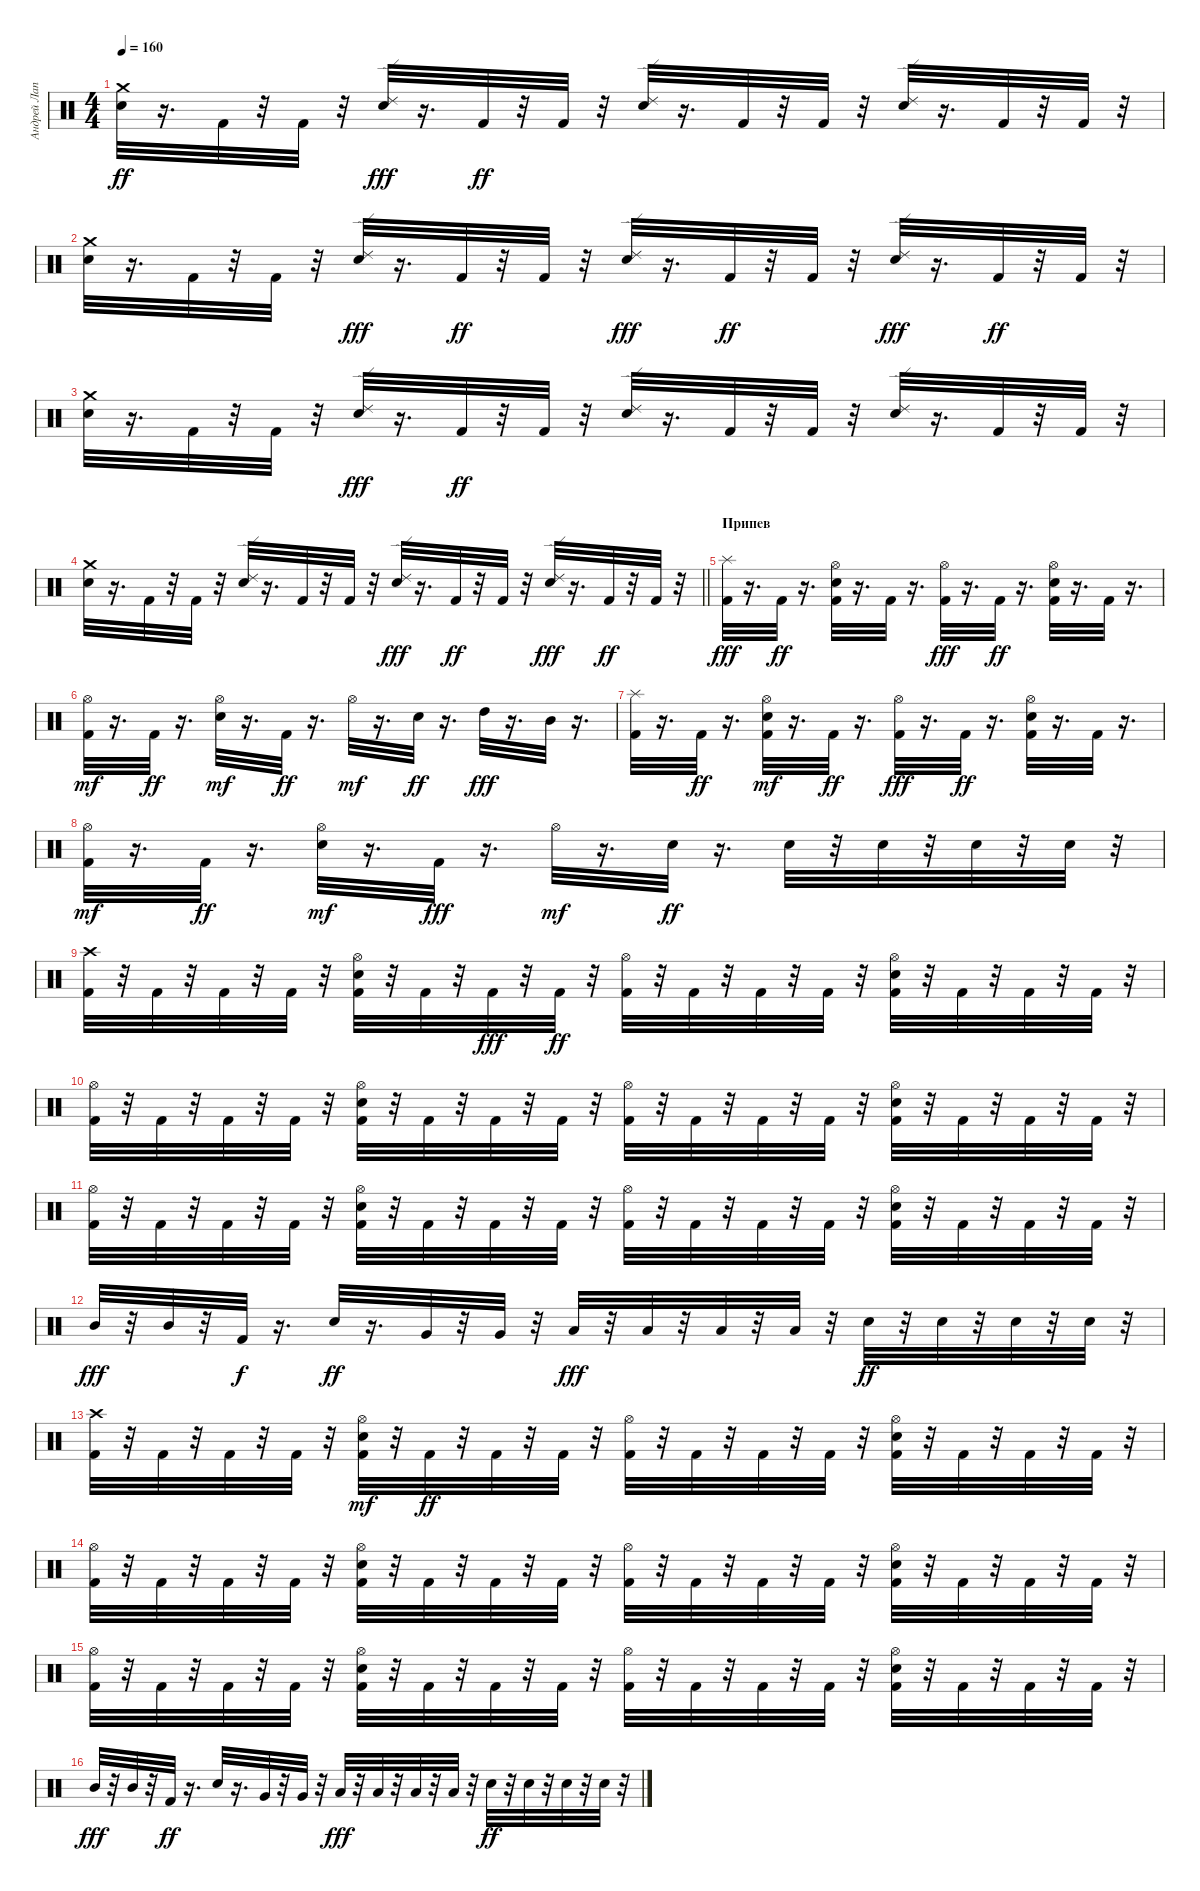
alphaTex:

\track ("Андрей Лаптев" "Андрей Лап") {instrument percussion}
\staff {score}
\articulation defaults
\ts (4 4)
\tempo 160
\clef neutral
\ks c
("Electric Snare (hit)" "Crash medium (hit)").32{dy ff} r.16{d} "Kick (hit) 2".32 r.32 "Kick (hit) 2".32 r.32 ("Electric Snare (hit)" "Ride (edge) 2").32{dy fff} r.16{d} "Kick (hit) 2".32{dy ff} r.32 "Kick (hit) 2".32 r.32 ("Ride (edge) 2" "Electric Snare (hit)").32 r.16{d} "Kick (hit) 2".32 r.32 "Kick (hit) 2".32 r.32 ("Ride (edge) 2" "Electric Snare (hit)").32 r.16{d} "Kick (hit) 2".32 r.32 "Kick (hit) 2".32 r.32 |
("Crash medium (hit)" "Electric Snare (hit)").32 r.16{d} "Kick (hit) 2".32 r.32 "Kick (hit) 2".32 r.32 ("Electric Snare (hit)" "Ride (edge) 2").32{dy fff} r.16{d} "Kick (hit) 2".32{dy ff} r.32 "Kick (hit) 2".32 r.32 ("Electric Snare (hit)" "Ride (edge) 2").32{dy fff} r.16{d} "Kick (hit) 2".32{dy ff} r.32 "Kick (hit) 2".32 r.32 ("Electric Snare (hit)" "Ride (edge) 2").32{dy fff} r.16{d} "Kick (hit) 2".32{dy ff} r.32 "Kick (hit) 2".32 r.32 |
("Electric Snare (hit)" "Crash medium (hit)").32 r.16{d} "Kick (hit) 2".32 r.32 "Kick (hit) 2".32 r.32 ("Electric Snare (hit)" "Ride (edge) 2").32{dy fff} r.16{d} "Kick (hit) 2".32{dy ff} r.32 "Kick (hit) 2".32 r.32 ("Ride (edge) 2" "Electric Snare (hit)").32 r.16{d} "Kick (hit) 2".32 r.32 "Kick (hit) 2".32 r.32 ("Ride (edge) 2" "Electric Snare (hit)").32 r.16{d} "Kick (hit) 2".32 r.32 "Kick (hit) 2".32 r.32 |
\barLineRight lightlight
("Crash medium (hit)" "Electric Snare (hit)").32 r.16{d} "Kick (hit) 2".32 r.32 "Kick (hit) 2".32 r.32 ("Ride (edge) 2" "Electric Snare (hit)").32 r.16{d} "Kick (hit) 2".32 r.32 "Kick (hit) 2".32 r.32 ("Electric Snare (hit)" "Ride (edge) 2").32{dy fff} r.16{d} "Kick (hit) 2".32{dy ff} r.32 "Kick (hit) 2".32 r.32 ("Electric Snare (hit)" "Ride (edge) 2").32{dy fff} r.16{d} "Kick (hit) 2".32{dy ff} r.32 "Kick (hit) 2".32 r.32 |
\section ("" "Припев")
("Splash (hit)" "Kick (hit) 2").32{dy fff} r.16{d} "Kick (hit) 2".32{dy ff} r.16{d} ("Electric Snare (hit)" "Hi-Hat (open)" "Kick (hit) 2").32 r.16{d} "Kick (hit) 2".32 r.16{d} ("Hi-Hat (open)" "Kick (hit) 2").32{dy fff} r.16{d} "Kick (hit) 2".32{dy ff} r.16{d} ("Electric Snare (hit)" "Hi-Hat (open)" "Kick (hit) 2").32 r.16{d} "Kick (hit) 2".32 r.16{d} |
("Kick (hit) 2" "Hi-Hat (open)").32{dy mf} r.16{d} "Kick (hit) 2".32{dy ff} r.16{d} ("Electric Snare (hit)" "Hi-Hat (open)").32{dy mf} r.16{d} "Kick (hit) 2".32{dy ff} r.16{d} "Hi-Hat (open)".32{dy mf} r.16{d} "Electric Snare (hit)".32{dy ff} r.16{d} "High Tom (hit)".32{dy fff} r.16{d} "Mid Tom (hit)".32 r.16{d} |
("Splash (hit)" "Kick (hit) 2").32 r.16{d} "Kick (hit) 2".32{dy ff} r.16{d} ("Kick (hit) 2" "Electric Snare (hit)" "Hi-Hat (open)").32{dy mf} r.16{d} "Kick (hit) 2".32{dy ff} r.16{d} ("Hi-Hat (open)" "Kick (hit) 2").32{dy fff} r.16{d} "Kick (hit) 2".32{dy ff} r.16{d} ("Hi-Hat (open)" "Electric Snare (hit)" "Kick (hit) 2").32 r.16{d} "Kick (hit) 2".32 r.16{d} |
("Kick (hit) 2" "Hi-Hat (open)").32{dy mf} r.16{d} "Kick (hit) 2".32{dy ff} r.16{d} ("Electric Snare (hit)" "Hi-Hat (open)").32{dy mf} r.16{d} "Kick (hit) 2".32{dy fff} r.16{d} "Hi-Hat (open)".32{dy mf} r.16{d} "Electric Snare (hit)".32{dy ff} r.16{d} "Electric Snare (hit)".32 r.32 "Electric Snare (hit)".32 r.32 "Electric Snare (hit)".32 r.32 "Electric Snare (hit)".32 r.32 |
("Kick (hit) 2" "Crash high (hit)").32 r.32 "Kick (hit) 2".32 r.32 "Kick (hit) 2".32 r.32 "Kick (hit) 2".32 r.32 ("Kick (hit) 2" "Hi-Hat (open)" "Electric Snare (hit)").32 r.32 "Kick (hit) 2".32 r.32 "Kick (hit) 2".32{dy fff} r.32 "Kick (hit) 2".32{dy ff} r.32 ("Hi-Hat (open)" "Kick (hit) 2").32 r.32 "Kick (hit) 2".32 r.32 "Kick (hit) 2".32 r.32 "Kick (hit) 2".32 r.32 ("Hi-Hat (open)" "Kick (hit) 2" "Electric Snare (hit)").32 r.32 "Kick (hit) 2".32 r.32 "Kick (hit) 2".32 r.32 "Kick (hit) 2".32 r.32 |
("Hi-Hat (open)" "Kick (hit) 2").32 r.32 "Kick (hit) 2".32 r.32 "Kick (hit) 2".32 r.32 "Kick (hit) 2".32 r.32 ("Electric Snare (hit)" "Hi-Hat (open)" "Kick (hit) 2").32 r.32 "Kick (hit) 2".32 r.32 "Kick (hit) 2".32 r.32 "Kick (hit) 2".32 r.32 ("Hi-Hat (open)" "Kick (hit) 2").32 r.32 "Kick (hit) 2".32 r.32 "Kick (hit) 2".32 r.32 "Kick (hit) 2".32 r.32 ("Electric Snare (hit)" "Hi-Hat (open)" "Kick (hit) 2").32 r.32 "Kick (hit) 2".32 r.32 "Kick (hit) 2".32 r.32 "Kick (hit) 2".32 r.32 |
("Hi-Hat (open)" "Kick (hit) 2").32 r.32 "Kick (hit) 2".32 r.32 "Kick (hit) 2".32 r.32 "Kick (hit) 2".32 r.32 ("Hi-Hat (open)" "Electric Snare (hit)" "Kick (hit) 2").32 r.32 "Kick (hit) 2".32 r.32 "Kick (hit) 2".32 r.32 "Kick (hit) 2".32 r.32 ("Hi-Hat (open)" "Kick (hit) 2").32 r.32 "Kick (hit) 2".32 r.32 "Kick (hit) 2".32 r.32 "Kick (hit) 2".32 r.32 ("Hi-Hat (open)" "Electric Snare (hit)" "Kick (hit) 2").32 r.32 "Kick (hit) 2".32 r.32 "Kick (hit) 2".32 r.32 "Kick (hit) 2".32 r.32 |
"Mid Tom (hit)".32{dy fff} r.32 "Mid Tom (hit)".32 r.32 "Kick (hit) 2".32{dy f} r.16{d} "Electric Snare (hit)".32{dy ff} r.16{d} "Very Low Tom (hit)".32 r.32 "Very Low Tom (hit)".32 r.32 "Low Tom (hit)".32{dy fff} r.32 "Low Tom (hit)".32 r.32 "Low Tom (hit)".32 r.32 "Low Tom (hit)".32 r.32 "Electric Snare (hit)".32{dy ff} r.32 "Electric Snare (hit)".32 r.32 "Electric Snare (hit)".32 r.32 "Electric Snare (hit)".32 r.32 |
("Kick (hit) 2" "Crash high (hit)").32 r.32 "Kick (hit) 2".32 r.32 "Kick (hit) 2".32 r.32 "Kick (hit) 2".32 r.32 ("Kick (hit) 2" "Electric Snare (hit)" "Hi-Hat (open)").32{dy mf} r.32 "Kick (hit) 2".32{dy ff} r.32 "Kick (hit) 2".32 r.32 "Kick (hit) 2".32 r.32 ("Hi-Hat (open)" "Kick (hit) 2").32 r.32 "Kick (hit) 2".32 r.32 "Kick (hit) 2".32 r.32 "Kick (hit) 2".32 r.32 ("Electric Snare (hit)" "Hi-Hat (open)" "Kick (hit) 2").32 r.32 "Kick (hit) 2".32 r.32 "Kick (hit) 2".32 r.32 "Kick (hit) 2".32 r.32 |
("Hi-Hat (open)" "Kick (hit) 2").32 r.32 "Kick (hit) 2".32 r.32 "Kick (hit) 2".32 r.32 "Kick (hit) 2".32 r.32 ("Hi-Hat (open)" "Electric Snare (hit)" "Kick (hit) 2").32 r.32 "Kick (hit) 2".32 r.32 "Kick (hit) 2".32 r.32 "Kick (hit) 2".32 r.32 ("Hi-Hat (open)" "Kick (hit) 2").32 r.32 "Kick (hit) 2".32 r.32 "Kick (hit) 2".32 r.32 "Kick (hit) 2".32 r.32 ("Electric Snare (hit)" "Hi-Hat (open)" "Kick (hit) 2").32 r.32 "Kick (hit) 2".32 r.32 "Kick (hit) 2".32 r.32 "Kick (hit) 2".32 r.32 |
("Hi-Hat (open)" "Kick (hit) 2").32 r.32 "Kick (hit) 2".32 r.32 "Kick (hit) 2".32 r.32 "Kick (hit) 2".32 r.32 ("Electric Snare (hit)" "Hi-Hat (open)" "Kick (hit) 2").32 r.32 "Kick (hit) 2".32 r.32 "Kick (hit) 2".32 r.32 "Kick (hit) 2".32 r.32 ("Hi-Hat (open)" "Kick (hit) 2").32 r.32 "Kick (hit) 2".32 r.32 "Kick (hit) 2".32 r.32 "Kick (hit) 2".32 r.32 ("Hi-Hat (open)" "Electric Snare (hit)" "Kick (hit) 2").32 r.32 "Kick (hit) 2".32 r.32 "Kick (hit) 2".32 r.32 "Kick (hit) 2".32 r.32 |
"Mid Tom (hit)".32{dy fff} r.32 "Mid Tom (hit)".32 r.32 "Kick (hit) 2".32{dy ff} r.16{d} "Electric Snare (hit)".32 r.16{d} "Very Low Tom (hit)".32 r.32 "Very Low Tom (hit)".32 r.32 "Low Tom (hit)".32{dy fff} r.32 "Low Tom (hit)".32 r.32 "Low Tom (hit)".32 r.32 "Low Tom (hit)".32 r.32 "Electric Snare (hit)".32{dy ff} r.32 "Electric Snare (hit)".32 r.32 "Electric Snare (hit)".32 r.32 "Electric Snare (hit)".32 r.32
